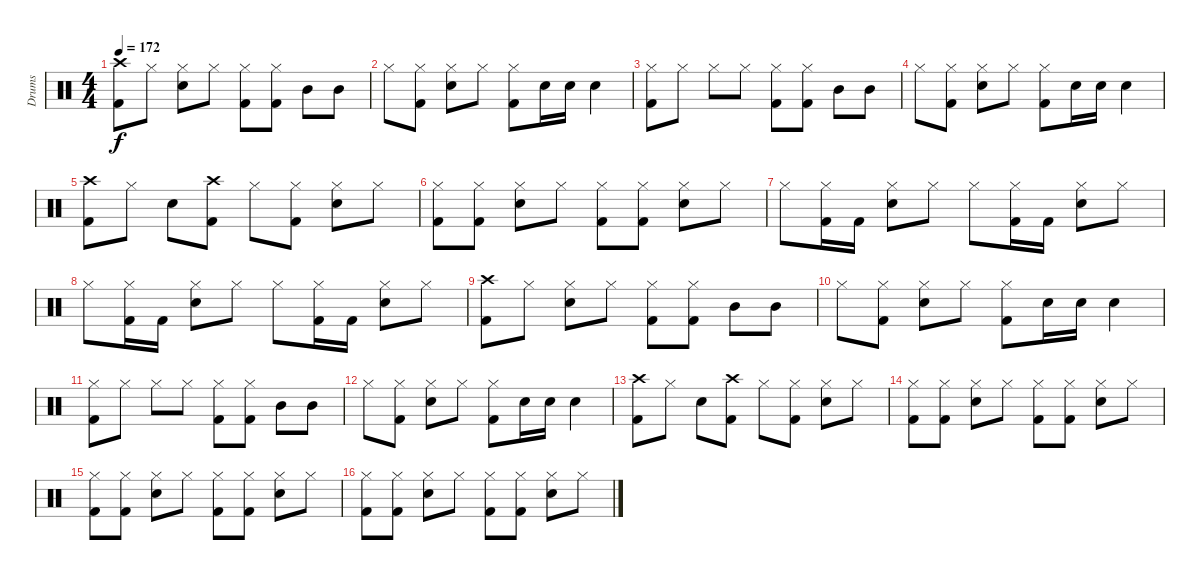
\track ("Drums" "Drums") {instrument percussion}
\staff {score}
\articulation defaults
\ts (4 4)
\tempo 172
\clef neutral
\ks c
("Crash high (hit)" "Kick (hit) 2").8{dy f} "Hi-Hat (closed)".8 ("Hi-Hat (closed)" "Electric Snare (hit)").8 "Hi-Hat (closed)".8 ("Hi-Hat (closed)" "Kick (hit) 2").8 ("Hi-Hat (closed)" "Kick (hit) 2").8 "Mid Tom (hit)".8 "Mid Tom (hit)".8 |
"Hi-Hat (closed)".8 ("Hi-Hat (closed)" "Kick (hit) 2").8 ("Hi-Hat (closed)" "Electric Snare (hit)").8 "Hi-Hat (closed)".8 ("Hi-Hat (closed)" "Kick (hit) 2").8 "Electric Snare (hit)".16 "Electric Snare (hit)".16 "Electric Snare (hit)".4 |
("Hi-Hat (closed)" "Kick (hit) 2").8 "Hi-Hat (closed)".8 "Hi-Hat (closed)".8 "Hi-Hat (closed)".8 ("Hi-Hat (closed)" "Kick (hit) 2").8 ("Hi-Hat (closed)" "Kick (hit) 2").8 "Mid Tom (hit)".8 "Mid Tom (hit)".8 |
"Hi-Hat (closed)".8 ("Hi-Hat (closed)" "Kick (hit) 2").8 ("Hi-Hat (closed)" "Electric Snare (hit)").8 "Hi-Hat (closed)".8 ("Hi-Hat (closed)" "Kick (hit) 2").8 "Electric Snare (hit)".16 "Electric Snare (hit)".16 "Electric Snare (hit)".4 |
("Crash high (hit)" "Kick (hit) 2").8 "Hi-Hat (closed)".8 "Electric Snare (hit)".8 ("Crash high (hit)" "Kick (hit) 2").8 "Hi-Hat (closed)".8 ("Hi-Hat (closed)" "Kick (hit) 2").8 ("Hi-Hat (closed)" "Electric Snare (hit)").8 "Hi-Hat (closed)".8 |
("Hi-Hat (closed)" "Kick (hit) 2").8 ("Hi-Hat (closed)" "Kick (hit) 2").8 ("Hi-Hat (closed)" "Electric Snare (hit)").8 "Hi-Hat (closed)".8 ("Hi-Hat (closed)" "Kick (hit) 2").8 ("Hi-Hat (closed)" "Kick (hit) 2").8 ("Hi-Hat (closed)" "Electric Snare (hit)").8 "Hi-Hat (closed)".8 |
"Hi-Hat (closed)".8 ("Hi-Hat (closed)" "Kick (hit) 2").16 "Kick (hit) 2".16 ("Hi-Hat (closed)" "Electric Snare (hit)").8 "Hi-Hat (closed)".8 "Hi-Hat (closed)".8 ("Hi-Hat (closed)" "Kick (hit) 2").16 "Kick (hit) 2".16 ("Hi-Hat (closed)" "Electric Snare (hit)").8 "Hi-Hat (closed)".8 |
"Hi-Hat (closed)".8 ("Hi-Hat (closed)" "Kick (hit) 2").16 "Kick (hit) 2".16 ("Hi-Hat (closed)" "Electric Snare (hit)").8 "Hi-Hat (closed)".8 "Hi-Hat (closed)".8 ("Hi-Hat (closed)" "Kick (hit) 2").16 "Kick (hit) 2".16 ("Hi-Hat (closed)" "Electric Snare (hit)").8 "Hi-Hat (closed)".8 |
("Crash high (hit)" "Kick (hit) 2").8 "Hi-Hat (closed)".8 ("Hi-Hat (closed)" "Electric Snare (hit)").8 "Hi-Hat (closed)".8 ("Hi-Hat (closed)" "Kick (hit) 2").8 ("Hi-Hat (closed)" "Kick (hit) 2").8 "Mid Tom (hit)".8 "Mid Tom (hit)".8 |
"Hi-Hat (closed)".8 ("Hi-Hat (closed)" "Kick (hit) 2").8 ("Hi-Hat (closed)" "Electric Snare (hit)").8 "Hi-Hat (closed)".8 ("Hi-Hat (closed)" "Kick (hit) 2").8 "Electric Snare (hit)".16 "Electric Snare (hit)".16 "Electric Snare (hit)".4 |
("Hi-Hat (closed)" "Kick (hit) 2").8 "Hi-Hat (closed)".8 "Hi-Hat (closed)".8 "Hi-Hat (closed)".8 ("Hi-Hat (closed)" "Kick (hit) 2").8 ("Hi-Hat (closed)" "Kick (hit) 2").8 "Mid Tom (hit)".8 "Mid Tom (hit)".8 |
"Hi-Hat (closed)".8 ("Hi-Hat (closed)" "Kick (hit) 2").8 ("Hi-Hat (closed)" "Electric Snare (hit)").8 "Hi-Hat (closed)".8 ("Hi-Hat (closed)" "Kick (hit) 2").8 "Electric Snare (hit)".16 "Snare (hit)".16 "Electric Snare (hit)".4 |
("Crash high (hit)" "Kick (hit) 2").8 "Hi-Hat (closed)".8 "Electric Snare (hit)".8 ("Crash high (hit)" "Kick (hit) 2").8 "Hi-Hat (closed)".8 ("Hi-Hat (closed)" "Kick (hit) 2").8 ("Hi-Hat (closed)" "Electric Snare (hit)").8 "Hi-Hat (closed)".8 |
("Hi-Hat (closed)" "Kick (hit) 2").8 ("Hi-Hat (closed)" "Kick (hit) 2").8 ("Hi-Hat (closed)" "Electric Snare (hit)").8 "Hi-Hat (closed)".8 ("Hi-Hat (closed)" "Kick (hit) 2").8 ("Hi-Hat (closed)" "Kick (hit) 2").8 ("Hi-Hat (closed)" "Electric Snare (hit)").8 "Hi-Hat (closed)".8 |
("Hi-Hat (closed)" "Kick (hit) 2").8 ("Hi-Hat (closed)" "Kick (hit) 2").8 ("Hi-Hat (closed)" "Electric Snare (hit)").8 "Hi-Hat (closed)".8 ("Hi-Hat (closed)" "Kick (hit) 2").8 ("Hi-Hat (closed)" "Kick (hit) 2").8 ("Hi-Hat (closed)" "Electric Snare (hit)").8 "Hi-Hat (closed)".8 |
("Hi-Hat (closed)" "Kick (hit) 2").8 ("Hi-Hat (closed)" "Kick (hit) 2").8 ("Hi-Hat (closed)" "Electric Snare (hit)").8 "Hi-Hat (closed)".8 ("Hi-Hat (closed)" "Kick (hit) 2").8 ("Hi-Hat (closed)" "Kick (hit) 2").8 ("Hi-Hat (closed)" "Electric Snare (hit)").8 "Hi-Hat (closed)".8
